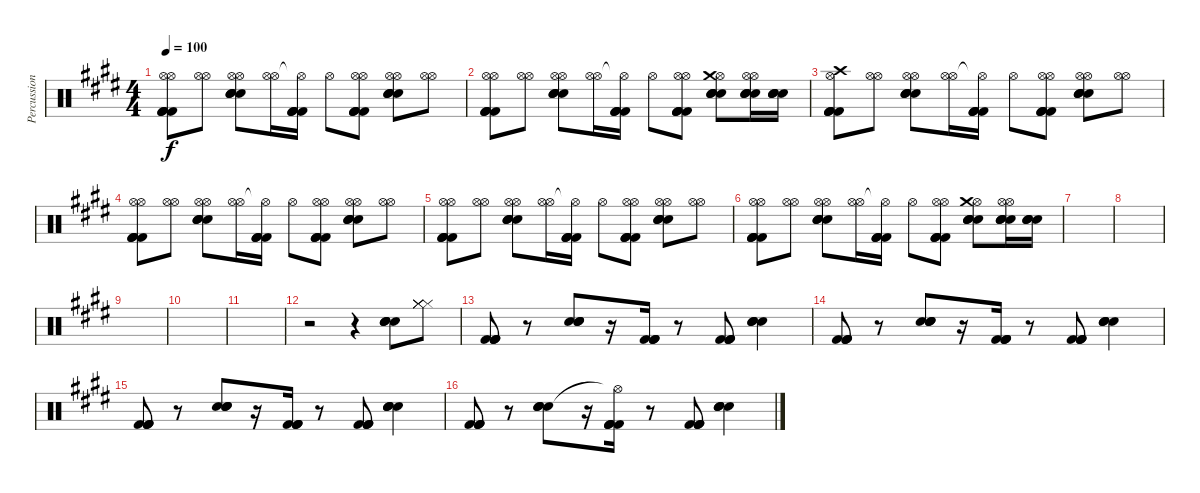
\track ("Percussion" "Percussion") {instrument percussion}
\staff {score}
\articulation defaults
\ts (4 4)
\tempo 100
\clef neutral
\ks e
("Hi-Hat (open)" "Kick (hit) 2" "Kick (hit) 2" "Kick (hit) 2" "Kick (hit) 2" "Hi-Hat (open)").8{dy f} ("Hi-Hat (open)" "Hi-Hat (open)").8 ("Hi-Hat (open)" "Electric Snare (hit)" "Electric Snare (hit)" "Electric Snare (hit)" "Electric Snare (hit)" "Hi-Hat (open)").8 ("Hi-Hat (open)" "Hi-Hat (open)").16 ("Hi-Hat (open)"{t} "Kick (hit) 2" "Kick (hit) 2" "Kick (hit) 2" "Kick (hit) 2").16 "Hi-Hat (open)".8 ("Hi-Hat (open)" "Kick (hit) 2" "Kick (hit) 2" "Kick (hit) 2" "Kick (hit) 2" "Hi-Hat (open)").8 ("Hi-Hat (open)" "Electric Snare (hit)" "Electric Snare (hit)" "Electric Snare (hit)" "Electric Snare (hit)" "Hi-Hat (open)").8 ("Hi-Hat (open)" "Hi-Hat (open)").8 |
("Hi-Hat (open)" "Kick (hit) 2" "Kick (hit) 2" "Kick (hit) 2" "Kick (hit) 2" "Hi-Hat (open)").8 ("Hi-Hat (open)" "Hi-Hat (open)").8 ("Hi-Hat (open)" "Electric Snare (hit)" "Electric Snare (hit)" "Electric Snare (hit)" "Electric Snare (hit)" "Hi-Hat (open)").8 ("Hi-Hat (open)" "Hi-Hat (open)").16 ("Hi-Hat (open)"{t} "Kick (hit) 2" "Kick (hit) 2" "Kick (hit) 2" "Kick (hit) 2").16 "Hi-Hat (open)".8 ("Hi-Hat (open)" "Kick (hit) 2" "Kick (hit) 2" "Kick (hit) 2" "Kick (hit) 2" "Hi-Hat (open)").8 ("Hi-Hat (open)" "Electric Snare (hit)" "Electric Snare (hit)" "Electric Snare (hit)" "Electric Snare (hit)" "Crash medium (hit)").8 ("Hi-Hat (open)" "Electric Snare (hit)" "Electric Snare (hit)" "Electric Snare (hit)" "Electric Snare (hit)" "Hi-Hat (open)").16 ("Electric Snare (hit)" "Electric Snare (hit)" "Electric Snare (hit)" "Electric Snare (hit)").16 |
("Hi-Hat (open)" "Kick (hit) 2" "Kick (hit) 2" "Kick (hit) 2" "Kick (hit) 2" "Crash high (hit)").8 ("Hi-Hat (open)" "Hi-Hat (open)").8 ("Hi-Hat (open)" "Electric Snare (hit)" "Electric Snare (hit)" "Electric Snare (hit)" "Electric Snare (hit)" "Hi-Hat (open)").8 ("Hi-Hat (open)" "Hi-Hat (open)").16 ("Hi-Hat (open)"{t} "Kick (hit) 2" "Kick (hit) 2" "Kick (hit) 2" "Kick (hit) 2").16 "Hi-Hat (open)".8 ("Hi-Hat (open)" "Kick (hit) 2" "Kick (hit) 2" "Kick (hit) 2" "Kick (hit) 2" "Hi-Hat (open)").8 ("Hi-Hat (open)" "Electric Snare (hit)" "Electric Snare (hit)" "Electric Snare (hit)" "Electric Snare (hit)" "Hi-Hat (open)").8 ("Hi-Hat (open)" "Hi-Hat (open)").8 |
("Hi-Hat (open)" "Kick (hit) 2" "Kick (hit) 2" "Kick (hit) 2" "Kick (hit) 2" "Hi-Hat (open)").8 ("Hi-Hat (open)" "Hi-Hat (open)").8 ("Hi-Hat (open)" "Electric Snare (hit)" "Electric Snare (hit)" "Electric Snare (hit)" "Electric Snare (hit)" "Hi-Hat (open)").8 ("Hi-Hat (open)" "Hi-Hat (open)").16 ("Hi-Hat (open)"{t} "Kick (hit) 2" "Kick (hit) 2" "Kick (hit) 2" "Kick (hit) 2").16 "Hi-Hat (open)".8 ("Hi-Hat (open)" "Kick (hit) 2" "Kick (hit) 2" "Kick (hit) 2" "Kick (hit) 2" "Hi-Hat (open)").8 ("Hi-Hat (open)" "Electric Snare (hit)" "Electric Snare (hit)" "Electric Snare (hit)" "Electric Snare (hit)" "Hi-Hat (open)").8 ("Hi-Hat (open)" "Hi-Hat (open)").8 |
("Hi-Hat (open)" "Kick (hit) 2" "Kick (hit) 2" "Kick (hit) 2" "Kick (hit) 2" "Hi-Hat (open)").8 ("Hi-Hat (open)" "Hi-Hat (open)").8 ("Hi-Hat (open)" "Electric Snare (hit)" "Electric Snare (hit)" "Electric Snare (hit)" "Electric Snare (hit)" "Hi-Hat (open)").8 ("Hi-Hat (open)" "Hi-Hat (open)").16 ("Hi-Hat (open)"{t} "Kick (hit) 2" "Kick (hit) 2" "Kick (hit) 2" "Kick (hit) 2").16 "Hi-Hat (open)".8 ("Hi-Hat (open)" "Kick (hit) 2" "Kick (hit) 2" "Kick (hit) 2" "Kick (hit) 2" "Hi-Hat (open)").8 ("Hi-Hat (open)" "Electric Snare (hit)" "Electric Snare (hit)" "Electric Snare (hit)" "Electric Snare (hit)" "Hi-Hat (open)").8 ("Hi-Hat (open)" "Hi-Hat (open)").8 |
("Hi-Hat (open)" "Kick (hit) 2" "Kick (hit) 2" "Kick (hit) 2" "Kick (hit) 2" "Hi-Hat (open)").8 ("Hi-Hat (open)" "Hi-Hat (open)").8 ("Hi-Hat (open)" "Electric Snare (hit)" "Electric Snare (hit)" "Electric Snare (hit)" "Electric Snare (hit)" "Hi-Hat (open)").8 ("Hi-Hat (open)" "Hi-Hat (open)").16 ("Hi-Hat (open)"{t} "Kick (hit) 2" "Kick (hit) 2" "Kick (hit) 2" "Kick (hit) 2").16 "Hi-Hat (open)".8 ("Hi-Hat (open)" "Kick (hit) 2" "Kick (hit) 2" "Kick (hit) 2" "Kick (hit) 2" "Hi-Hat (open)").8 ("Hi-Hat (open)" "Electric Snare (hit)" "Electric Snare (hit)" "Electric Snare (hit)" "Electric Snare (hit)" "Crash medium (hit)").8 ("Hi-Hat (open)" "Electric Snare (hit)" "Electric Snare (hit)" "Electric Snare (hit)" "Electric Snare (hit)" "Hi-Hat (open)").16 ("Electric Snare (hit)" "Electric Snare (hit)" "Electric Snare (hit)" "Electric Snare (hit)").16 |
|
|
|
|
|
r.2 r.4 ("Electric Snare (hit)" "Electric Snare (hit)" "Electric Snare (hit)" "Electric Snare (hit)").8 ("Hi-Hat (closed)" "Hi-Hat (closed)" "Hi-Hat (closed)" "Hi-Hat (closed)").8 |
("Kick (hit) 2" "Kick (hit) 2" "Kick (hit) 2" "Kick (hit) 2").8 r.8 ("Electric Snare (hit)" "Electric Snare (hit)" "Electric Snare (hit)" "Electric Snare (hit)").8 r.16 ("Kick (hit) 2" "Kick (hit) 2" "Kick (hit) 2" "Kick (hit) 2").16 r.8 ("Kick (hit) 2" "Kick (hit) 2" "Kick (hit) 2" "Kick (hit) 2").8 ("Electric Snare (hit)" "Electric Snare (hit)" "Electric Snare (hit)" "Electric Snare (hit)").4 |
("Kick (hit) 2" "Kick (hit) 2" "Kick (hit) 2" "Kick (hit) 2").8 r.8 ("Electric Snare (hit)" "Electric Snare (hit)" "Electric Snare (hit)" "Electric Snare (hit)").8 r.16 ("Kick (hit) 2" "Kick (hit) 2" "Kick (hit) 2" "Kick (hit) 2").16 r.8 ("Kick (hit) 2" "Kick (hit) 2" "Kick (hit) 2" "Kick (hit) 2").8 ("Electric Snare (hit)" "Electric Snare (hit)" "Electric Snare (hit)" "Electric Snare (hit)").4 |
("Kick (hit) 2" "Kick (hit) 2" "Kick (hit) 2" "Kick (hit) 2").8 r.8 ("Electric Snare (hit)" "Electric Snare (hit)" "Electric Snare (hit)" "Electric Snare (hit)").8 r.16 ("Kick (hit) 2" "Kick (hit) 2" "Kick (hit) 2" "Kick (hit) 2").16 r.8 ("Kick (hit) 2" "Kick (hit) 2" "Kick (hit) 2" "Kick (hit) 2").8 ("Electric Snare (hit)" "Electric Snare (hit)" "Electric Snare (hit)" "Electric Snare (hit)").4 |
("Kick (hit) 2" "Kick (hit) 2" "Kick (hit) 2" "Kick (hit) 2").8 r.8 ("Electric Snare (hit)" "Electric Snare (hit)" "Electric Snare (hit)" "Electric Snare (hit)").8 r.16 ("Hi-Hat (open)"{t} "Kick (hit) 2" "Kick (hit) 2" "Kick (hit) 2" "Kick (hit) 2").16 r.8 ("Kick (hit) 2" "Kick (hit) 2" "Kick (hit) 2" "Kick (hit) 2").8 ("Electric Snare (hit)" "Electric Snare (hit)" "Electric Snare (hit)" "Electric Snare (hit)").4
